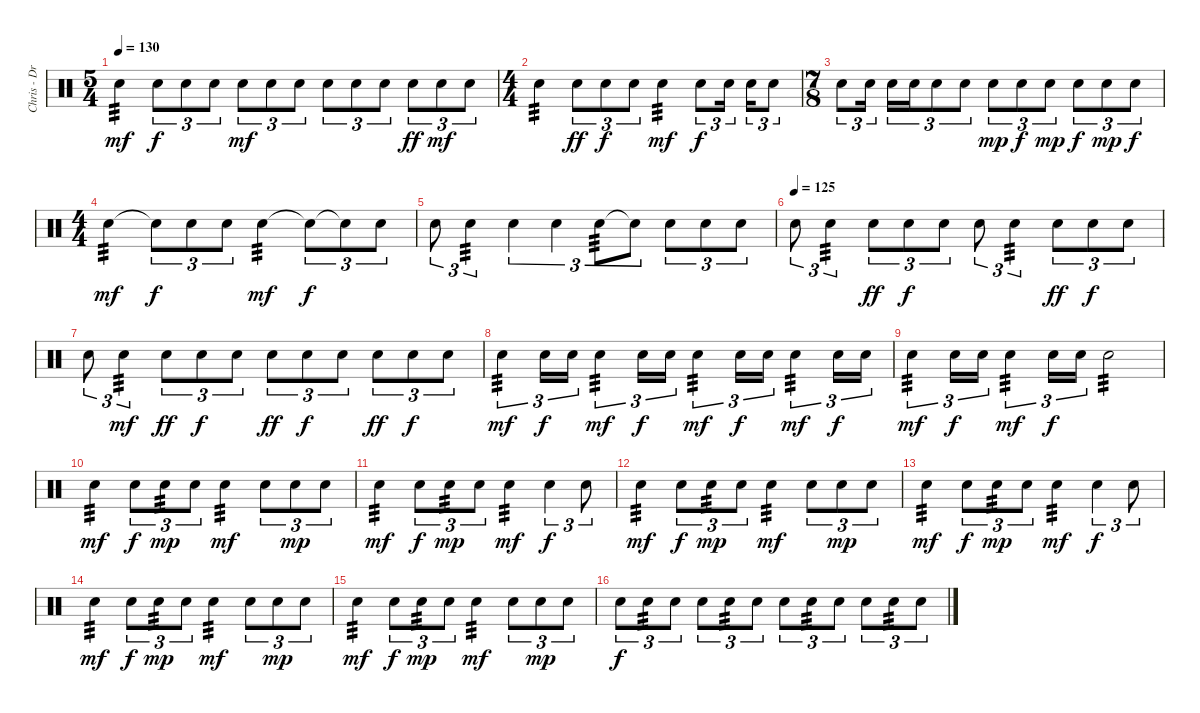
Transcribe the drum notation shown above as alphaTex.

\track ("Chris - Drums" "Chris - Dr") {instrument percussion}
\staff {score}
\articulation defaults
\ts (5 4)
\tempo 130
\clef neutral
\ks c "Electric Snare (hit)".4{tp 3 dy mf} "Electric Snare (hit)".8{tu (3 2) dy f} "Electric Snare (hit)".8{tu (3 2)} "Electric Snare (hit)".8{tu (3 2)} "Electric Snare (hit)".8{tu (3 2) dy mf} "Electric Snare (hit)".8{tu (3 2)} "Electric Snare (hit)".8{tu (3 2)} "Electric Snare (hit)".8{tu (3 2)} "Electric Snare (hit)".8{tu (3 2)} "Electric Snare (hit)".8{tu (3 2)} "Electric Snare (hit)".8{tu (3 2) dy ff} "Electric Snare (hit)".8{tu (3 2) dy mf} "Electric Snare (hit)".8{tu (3 2)}
|
\ts (4 4)
"Electric Snare (hit)".4{tp 3} "Electric Snare (hit)".8{tu (3 2) dy ff} "Electric Snare (hit)".8{tu (3 2) dy f} "Electric Snare (hit)".8{tu (3 2)} "Electric Snare (hit)".4{tp 3 dy mf} "Electric Snare (hit)".8{tu (3 2) dy f} "Electric Snare (hit)".16{tu (3 2) beam splitsecondary} "Electric Snare (hit)".16{tu (3 2)} "Electric Snare (hit)".8{tu (3 2)} |
\ts (7 8)
"Electric Snare (hit)".8{tu (3 2)} "Electric Snare (hit)".16{tu (3 2)} "Electric Snare (hit)".16{tu (3 2)} "Electric Snare (hit)".16{tu (3 2)} "Electric Snare (hit)".8{tu (3 2)} "Electric Snare (hit)".8{tu (3 2)} "Electric Snare (hit)".8{tu (3 2) dy mp} "Electric Snare (hit)".8{tu (3 2) dy f} "Electric Snare (hit)".8{tu (3 2) dy mp} "Electric Snare (hit)".8{tu (3 2) dy f} "Electric Snare (hit)".8{tu (3 2) dy mp} "Electric Snare (hit)".8{tu (3 2) dy f} |
\ts (4 4)
"Electric Snare (hit)".4{tp 3 dy mf} "Electric Snare (hit)"{t}.8{tu (3 2) dy f} "Electric Snare (hit)".8{tu (3 2)} "Electric Snare (hit)".8{tu (3 2)} "Electric Snare (hit)".4{tp 3 dy mf} "Electric Snare (hit)"{t}.8{tu (3 2) dy f} "Electric Snare (hit)"{t}.8{tu (3 2)} "Electric Snare (hit)".8{tu (3 2)} |
"Electric Snare (hit)".8{tu (3 2)} "Electric Snare (hit)".4{tu (3 2) tp 3} "Electric Snare (hit)".4{tu (3 2)} "Electric Snare (hit)".4{tu (3 2)} "Electric Snare (hit)".8{tu (3 2) tp 3} "Snare (hit)"{t}.8{tu (3 2)} "Electric Snare (hit)".8{tu (3 2)} "Electric Snare (hit)".8{tu (3 2)} "Electric Snare (hit)".8{tu (3 2)} |
\tempo (125)
"Electric Snare (hit)".8{tu (3 2)} "Electric Snare (hit)".4{tu (3 2) tp 3} "Electric Snare (hit)".8{tu (3 2) dy ff} "Electric Snare (hit)".8{tu (3 2) dy f} "Electric Snare (hit)".8{tu (3 2)} "Electric Snare (hit)".8{tu (3 2)} "Electric Snare (hit)".4{tu (3 2) tp 3} "Electric Snare (hit)".8{tu (3 2) dy ff} "Electric Snare (hit)".8{tu (3 2) dy f} "Electric Snare (hit)".8{tu (3 2)} |
"Electric Snare (hit)".8{tu (3 2)} "Electric Snare (hit)".4{tu (3 2) tp 3 dy mf} "Electric Snare (hit)".8{tu (3 2) dy ff} "Electric Snare (hit)".8{tu (3 2) dy f} "Electric Snare (hit)".8{tu (3 2)} "Electric Snare (hit)".8{tu (3 2) dy ff} "Electric Snare (hit)".8{tu (3 2) dy f} "Electric Snare (hit)".8{tu (3 2)} "Electric Snare (hit)".8{tu (3 2) dy ff} "Electric Snare (hit)".8{tu (3 2) dy f} "Electric Snare (hit)".8{tu (3 2)} |
"Electric Snare (hit)".4{tu (3 2) tp 3 dy mf} "Electric Snare (hit)".16{tu (3 2) dy f} "Electric Snare (hit)".16{tu (3 2)} "Electric Snare (hit)".4{tu (3 2) tp 3 dy mf} "Electric Snare (hit)".16{tu (3 2) dy f} "Electric Snare (hit)".16{tu (3 2)} "Electric Snare (hit)".4{tu (3 2) tp 3 dy mf} "Electric Snare (hit)".16{tu (3 2) dy f} "Electric Snare (hit)".16{tu (3 2)} "Electric Snare (hit)".4{tu (3 2) tp 3 dy mf} "Electric Snare (hit)".16{tu (3 2) dy f} "Electric Snare (hit)".16{tu (3 2)} |
"Electric Snare (hit)".4{tu (3 2) tp 3 dy mf} "Electric Snare (hit)".16{tu (3 2) dy f} "Electric Snare (hit)".16{tu (3 2)} "Electric Snare (hit)".4{tu (3 2) tp 3 dy mf} "Electric Snare (hit)".16{tu (3 2) dy f} "Electric Snare (hit)".16{tu (3 2)} "Electric Snare (hit)".2{tp 3 volume 10} |
"Electric Snare (hit)".4{tp 3 dy mf} "Electric Snare (hit)".8{tu (3 2) dy f} "Electric Snare (hit)".8{tu (3 2) tp 3 dy mp} "Electric Snare (hit)".8{tu (3 2)} "Electric Snare (hit)".4{tp 3 dy mf} "Electric Snare (hit)".8{tu (3 2)} "Electric Snare (hit)".8{tu (3 2) dy mp} "Electric Snare (hit)".8{tu (3 2)} |
"Electric Snare (hit)".4{tp 3 dy mf} "Electric Snare (hit)".8{tu (3 2) dy f} "Electric Snare (hit)".8{tu (3 2) tp 3 dy mp} "Electric Snare (hit)".8{tu (3 2)} "Electric Snare (hit)".4{tp 3 dy mf} "Electric Snare (hit)".4{tu (3 2) dy f} "Electric Snare (hit)".8{tu (3 2)} |
"Electric Snare (hit)".4{tp 3 dy mf} "Electric Snare (hit)".8{tu (3 2) dy f} "Electric Snare (hit)".8{tu (3 2) tp 3 dy mp} "Electric Snare (hit)".8{tu (3 2)} "Electric Snare (hit)".4{tp 3 dy mf} "Electric Snare (hit)".8{tu (3 2)} "Electric Snare (hit)".8{tu (3 2) dy mp} "Electric Snare (hit)".8{tu (3 2)} |
"Electric Snare (hit)".4{tp 3 dy mf} "Electric Snare (hit)".8{tu (3 2) dy f} "Electric Snare (hit)".8{tu (3 2) tp 3 dy mp} "Electric Snare (hit)".8{tu (3 2)} "Electric Snare (hit)".4{tp 3 dy mf} "Electric Snare (hit)".4{tu (3 2) dy f} "Electric Snare (hit)".8{tu (3 2)} |
"Electric Snare (hit)".4{tp 3 dy mf} "Electric Snare (hit)".8{tu (3 2) dy f} "Electric Snare (hit)".8{tu (3 2) tp 3 dy mp} "Electric Snare (hit)".8{tu (3 2)} "Electric Snare (hit)".4{tp 3 dy mf} "Electric Snare (hit)".8{tu (3 2)} "Electric Snare (hit)".8{tu (3 2) dy mp} "Electric Snare (hit)".8{tu (3 2)} |
"Electric Snare (hit)".4{tp 3 dy mf} "Electric Snare (hit)".8{tu (3 2) dy f} "Electric Snare (hit)".8{tu (3 2) tp 3 dy mp} "Electric Snare (hit)".8{tu (3 2)} "Electric Snare (hit)".4{tp 3 dy mf} "Electric Snare (hit)".8{tu (3 2)} "Electric Snare (hit)".8{tu (3 2) dy mp} "Electric Snare (hit)".8{tu (3 2)} |
"Electric Snare (hit)".8{tu (3 2) dy f} "Electric Snare (hit)".8{tu (3 2) tp 3} "Electric Snare (hit)".8{tu (3 2)} "Electric Snare (hit)".8{tu (3 2)} "Electric Snare (hit)".8{tu (3 2) tp 3} "Electric Snare (hit)".8{tu (3 2)} "Electric Snare (hit)".8{tu (3 2)} "Electric Snare (hit)".8{tu (3 2) tp 3} "Electric Snare (hit)".8{tu (3 2)} "Electric Snare (hit)".8{tu (3 2)} "Electric Snare (hit)".8{tu (3 2) tp 3} "Electric Snare (hit)".8{tu (3 2)}
